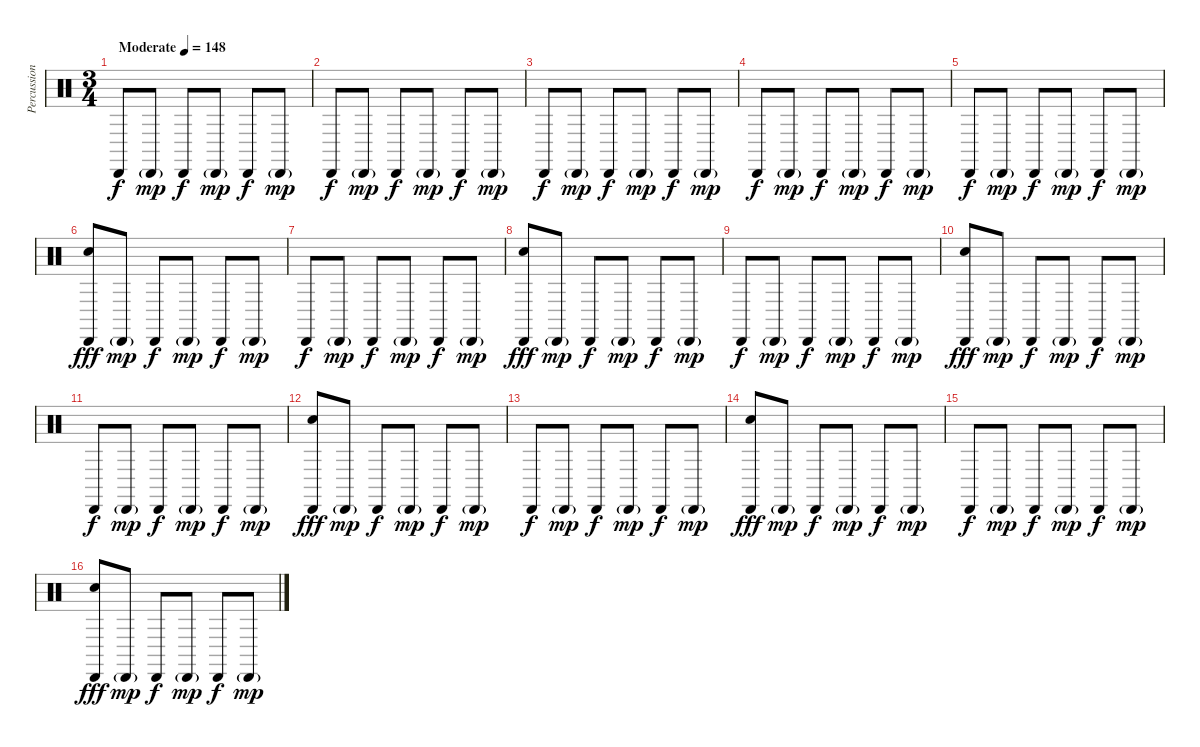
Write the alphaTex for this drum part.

\track ("Percussion" "Percussion") {instrument percussion}
\staff {score}
\articulation defaults
\ts (3 4)
\tempo (148 "Moderate")
\clef neutral
\ks c "Cabasa (hit)".8{dy f} "Cabasa (hit)"{g}.8{dy mp} "Cabasa (hit)".8{dy f} "Cabasa (hit)"{g}.8{dy mp} "Cabasa (hit)".8{dy f} "Cabasa (hit)"{g}.8{dy mp}
|
"Cabasa (hit)".8{dy f} "Cabasa (hit)"{g}.8{dy mp} "Cabasa (hit)".8{dy f} "Cabasa (hit)"{g}.8{dy mp} "Cabasa (hit)".8{dy f} "Cabasa (hit)"{g}.8{dy mp} |
"Cabasa (hit)".8{dy f} "Cabasa (hit)"{g}.8{dy mp} "Cabasa (hit)".8{dy f} "Cabasa (hit)"{g}.8{dy mp} "Cabasa (hit)".8{dy f} "Cabasa (hit)"{g}.8{dy mp} |
"Cabasa (hit)".8{dy f} "Cabasa (hit)"{g}.8{dy mp} "Cabasa (hit)".8{dy f} "Cabasa (hit)"{g}.8{dy mp} "Cabasa (hit)".8{dy f} "Cabasa (hit)"{g}.8{dy mp} |
"Cabasa (hit)".8{dy f} "Cabasa (hit)"{g}.8{dy mp} "Cabasa (hit)".8{dy f} "Cabasa (hit)"{g}.8{dy mp} "Cabasa (hit)".8{dy f} "Cabasa (hit)"{g}.8{dy mp} |
("Cabasa (hit)" "Hand Clap (hit)").8{dy fff} "Cabasa (hit)"{g}.8{dy mp} "Cabasa (hit)".8{dy f} "Cabasa (hit)"{g}.8{dy mp} "Cabasa (hit)".8{dy f} "Cabasa (hit)"{g}.8{dy mp} |
"Cabasa (hit)".8{dy f} "Cabasa (hit)"{g}.8{dy mp} "Cabasa (hit)".8{dy f} "Cabasa (hit)"{g}.8{dy mp} "Cabasa (hit)".8{dy f} "Cabasa (hit)"{g}.8{dy mp} |
("Cabasa (hit)" "Hand Clap (hit)").8{dy fff} "Cabasa (hit)"{g}.8{dy mp} "Cabasa (hit)".8{dy f} "Cabasa (hit)"{g}.8{dy mp} "Cabasa (hit)".8{dy f} "Cabasa (hit)"{g}.8{dy mp} |
"Cabasa (hit)".8{dy f} "Cabasa (hit)"{g}.8{dy mp} "Cabasa (hit)".8{dy f} "Cabasa (hit)"{g}.8{dy mp} "Cabasa (hit)".8{dy f} "Cabasa (hit)"{g}.8{dy mp} |
("Cabasa (hit)" "Hand Clap (hit)").8{dy fff} "Cabasa (hit)"{g}.8{dy mp} "Cabasa (hit)".8{dy f} "Cabasa (hit)"{g}.8{dy mp} "Cabasa (hit)".8{dy f} "Cabasa (hit)"{g}.8{dy mp} |
"Cabasa (hit)".8{dy f} "Cabasa (hit)"{g}.8{dy mp} "Cabasa (hit)".8{dy f} "Cabasa (hit)"{g}.8{dy mp} "Cabasa (hit)".8{dy f} "Cabasa (hit)"{g}.8{dy mp} |
("Cabasa (hit)" "Hand Clap (hit)").8{dy fff} "Cabasa (hit)"{g}.8{dy mp} "Cabasa (hit)".8{dy f} "Cabasa (hit)"{g}.8{dy mp} "Cabasa (hit)".8{dy f} "Cabasa (hit)"{g}.8{dy mp} |
"Cabasa (hit)".8{dy f} "Cabasa (hit)"{g}.8{dy mp} "Cabasa (hit)".8{dy f} "Cabasa (hit)"{g}.8{dy mp} "Cabasa (hit)".8{dy f} "Cabasa (hit)"{g}.8{dy mp} |
("Cabasa (hit)" "Hand Clap (hit)").8{dy fff} "Cabasa (hit)"{g}.8{dy mp} "Cabasa (hit)".8{dy f} "Cabasa (hit)"{g}.8{dy mp} "Cabasa (hit)".8{dy f} "Cabasa (hit)"{g}.8{dy mp} |
"Cabasa (hit)".8{dy f} "Cabasa (hit)"{g}.8{dy mp} "Cabasa (hit)".8{dy f} "Cabasa (hit)"{g}.8{dy mp} "Cabasa (hit)".8{dy f} "Cabasa (hit)"{g}.8{dy mp} |
("Cabasa (hit)" "Hand Clap (hit)").8{dy fff} "Cabasa (hit)"{g}.8{dy mp} "Cabasa (hit)".8{dy f} "Cabasa (hit)"{g}.8{dy mp} "Cabasa (hit)".8{dy f} "Cabasa (hit)"{g}.8{dy mp}
